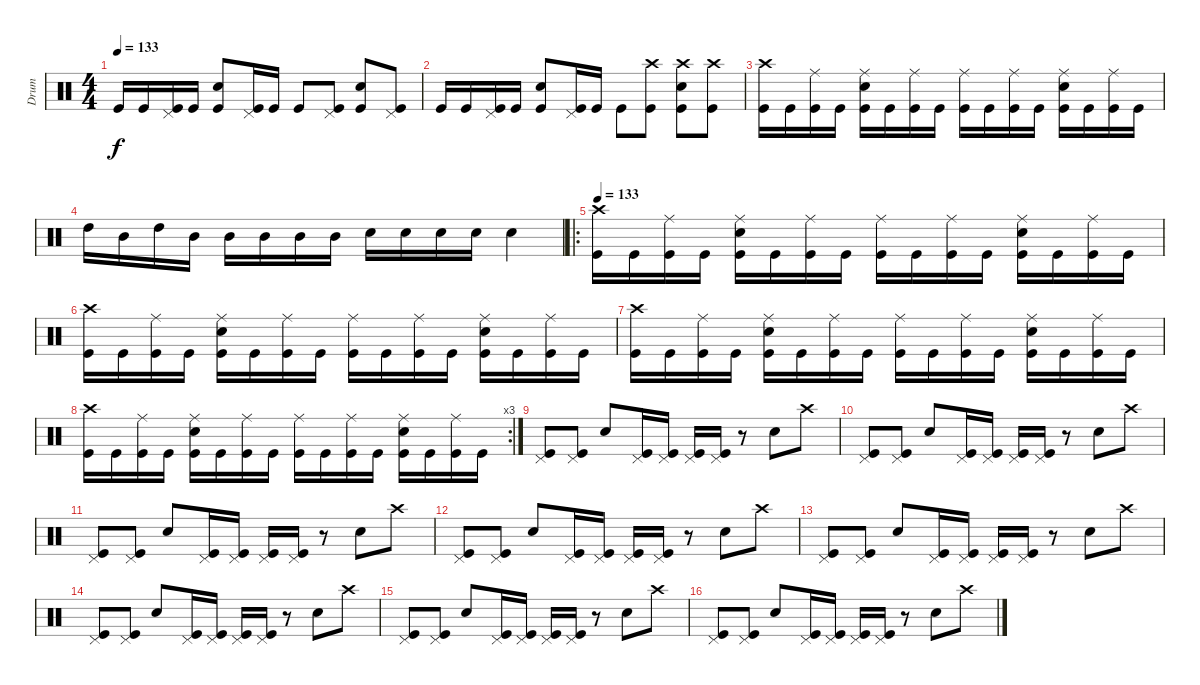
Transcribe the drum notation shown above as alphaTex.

\track ("Drum" "Drum") {instrument percussion}
\staff {score}
\articulation defaults
\ts (4 4)
\tempo 133
\clef neutral
\ks c "Kick (hit)".16{dy f} "Kick (hit)".16
("Kick (hit)" "Pedal Hi-Hat (hit)").16 "Kick (hit)".16 ("Kick (hit)" "Snare (hit) 2").8 ("Kick (hit)" "Pedal Hi-Hat (hit)").16 "Kick (hit)".16 "Kick (hit)".8 ("Kick (hit)" "Pedal Hi-Hat (hit)").8 ("Kick (hit)" "Snare (hit) 2").8 ("Kick (hit)" "Pedal Hi-Hat (hit)").8 |
"Kick (hit)".16 "Kick (hit)".16 ("Kick (hit)" "Pedal Hi-Hat (hit)").16 "Kick (hit)".16 ("Kick (hit)" "Snare (hit) 2").8 ("Kick (hit)" "Pedal Hi-Hat (hit)").16 "Kick (hit)".16 "Kick (hit)".8 ("Kick (hit)" "Crash high (hit)").8 ("Kick (hit)" "Snare (hit) 2" "Crash high (hit)").8 ("Kick (hit)" "Crash high (hit)").8 |
("Kick (hit)" "Crash high (hit)").16 "Kick (hit)".16 ("Kick (hit)" "Ride (middle)").16 "Kick (hit)".16 ("Kick (hit)" "Ride (middle)" "Snare (hit) 2").16 "Kick (hit)".16 ("Kick (hit)" "Ride (middle)").16 "Kick (hit)".16 ("Kick (hit)" "Ride (middle)").16 "Kick (hit)".16 ("Kick (hit)" "Ride (middle)").16 "Kick (hit)".16 ("Kick (hit)" "Ride (middle)" "Snare (hit) 2").16 "Kick (hit)".16 ("Kick (hit)" "Ride (middle)").16 "Kick (hit)".16 |
"High Tom (hit)".16 "Mid Tom (hit)".16 "High Tom (hit)".16 "Mid Tom (hit)".16 "Mid Tom (hit)".16 "Mid Tom (hit)".16 "Mid Tom (hit)".16 "Mid Tom (hit)".16 "Snare (hit) 2".16 "Snare (hit) 2".16 "Snare (hit) 2".16 "Snare (hit) 2".16 "Snare (hit) 2".4 |
\ro
\tempo 133
("Kick (hit)" "Crash high (hit)").16 "Kick (hit)".16 ("Kick (hit)" "Ride (middle)").16 "Kick (hit)".16 ("Kick (hit)" "Ride (middle)" "Snare (hit) 2").16 "Kick (hit)".16 ("Kick (hit)" "Ride (middle)").16 "Kick (hit)".16 ("Kick (hit)" "Ride (middle)").16 "Kick (hit)".16 ("Kick (hit)" "Ride (middle)").16 "Kick (hit)".16 ("Kick (hit)" "Ride (middle)" "Snare (hit) 2").16 "Kick (hit)".16 ("Kick (hit)" "Ride (middle)").16 "Kick (hit)".16 |
("Kick (hit)" "Crash high (hit)").16 "Kick (hit)".16 ("Kick (hit)" "Ride (middle)").16 "Kick (hit)".16 ("Kick (hit)" "Ride (middle)" "Snare (hit) 2").16 "Kick (hit)".16 ("Kick (hit)" "Ride (middle)").16 "Kick (hit)".16 ("Kick (hit)" "Ride (middle)").16 "Kick (hit)".16 ("Kick (hit)" "Ride (middle)").16 "Kick (hit)".16 ("Kick (hit)" "Ride (middle)" "Snare (hit) 2").16 "Kick (hit)".16 ("Kick (hit)" "Ride (middle)").16 "Kick (hit)".16 |
("Kick (hit)" "Crash high (hit)").16 "Kick (hit)".16 ("Kick (hit)" "Ride (middle)").16 "Kick (hit)".16 ("Kick (hit)" "Ride (middle)" "Snare (hit) 2").16 "Kick (hit)".16 ("Kick (hit)" "Ride (middle)").16 "Kick (hit)".16 ("Kick (hit)" "Ride (middle)").16 "Kick (hit)".16 ("Kick (hit)" "Ride (middle)").16 "Kick (hit)".16 ("Kick (hit)" "Ride (middle)" "Snare (hit) 2").16 "Kick (hit)".16 ("Kick (hit)" "Ride (middle)").16 "Kick (hit)".16 |
\rc 3
("Kick (hit)" "Crash high (hit)").16 "Kick (hit)".16 ("Kick (hit)" "Ride (middle)").16 "Kick (hit)".16 ("Kick (hit)" "Ride (middle)" "Snare (hit) 2").16 "Kick (hit)".16 ("Kick (hit)" "Ride (middle)").16 "Kick (hit)".16 ("Kick (hit)" "Ride (middle)").16 "Kick (hit)".16 ("Kick (hit)" "Ride (middle)").16 "Kick (hit)".16 ("Kick (hit)" "Ride (middle)" "Snare (hit) 2").16 "Kick (hit)".16 ("Kick (hit)" "Ride (middle)").16 "Kick (hit)".16 |
("Kick (hit)" "Pedal Hi-Hat (hit)").8 ("Kick (hit)" "Pedal Hi-Hat (hit)").8 "Snare (hit) 2".8 ("Pedal Hi-Hat (hit)" "Kick (hit)").16 ("Kick (hit)" "Pedal Hi-Hat (hit)").16 ("Kick (hit)" "Pedal Hi-Hat (hit)").16 ("Kick (hit)" "Pedal Hi-Hat (hit)").16 r.8 "Snare (hit) 2".8 "Crash high (hit)".8 |
("Kick (hit)" "Pedal Hi-Hat (hit)").8 ("Kick (hit)" "Pedal Hi-Hat (hit)").8 "Snare (hit) 2".8 ("Pedal Hi-Hat (hit)" "Kick (hit)").16 ("Kick (hit)" "Pedal Hi-Hat (hit)").16 ("Kick (hit)" "Pedal Hi-Hat (hit)").16 ("Kick (hit)" "Pedal Hi-Hat (hit)").16 r.8 "Snare (hit) 2".8 "Crash high (hit)".8 |
("Kick (hit)" "Pedal Hi-Hat (hit)").8 ("Kick (hit)" "Pedal Hi-Hat (hit)").8 "Snare (hit) 2".8 ("Pedal Hi-Hat (hit)" "Kick (hit)").16 ("Kick (hit)" "Pedal Hi-Hat (hit)").16 ("Kick (hit)" "Pedal Hi-Hat (hit)").16 ("Kick (hit)" "Pedal Hi-Hat (hit)").16 r.8 "Snare (hit) 2".8 "Crash high (hit)".8 |
("Kick (hit)" "Pedal Hi-Hat (hit)").8 ("Kick (hit)" "Pedal Hi-Hat (hit)").8 "Snare (hit) 2".8 ("Pedal Hi-Hat (hit)" "Kick (hit)").16 ("Kick (hit)" "Pedal Hi-Hat (hit)").16 ("Kick (hit)" "Pedal Hi-Hat (hit)").16 ("Kick (hit)" "Pedal Hi-Hat (hit)").16 r.8 "Snare (hit) 2".8 "Crash high (hit)".8 |
("Kick (hit)" "Pedal Hi-Hat (hit)").8 ("Kick (hit)" "Pedal Hi-Hat (hit)").8 "Snare (hit) 2".8 ("Pedal Hi-Hat (hit)" "Kick (hit)").16 ("Kick (hit)" "Pedal Hi-Hat (hit)").16 ("Kick (hit)" "Pedal Hi-Hat (hit)").16 ("Kick (hit)" "Pedal Hi-Hat (hit)").16 r.8 "Snare (hit) 2".8 "Crash high (hit)".8 |
("Kick (hit)" "Pedal Hi-Hat (hit)").8 ("Kick (hit)" "Pedal Hi-Hat (hit)").8 "Snare (hit) 2".8 ("Pedal Hi-Hat (hit)" "Kick (hit)").16 ("Kick (hit)" "Pedal Hi-Hat (hit)").16 ("Kick (hit)" "Pedal Hi-Hat (hit)").16 ("Kick (hit)" "Pedal Hi-Hat (hit)").16 r.8 "Snare (hit) 2".8 "Crash high (hit)".8 |
("Kick (hit)" "Pedal Hi-Hat (hit)").8 ("Kick (hit)" "Pedal Hi-Hat (hit)").8 "Snare (hit) 2".8 ("Pedal Hi-Hat (hit)" "Kick (hit)").16 ("Kick (hit)" "Pedal Hi-Hat (hit)").16 ("Kick (hit)" "Pedal Hi-Hat (hit)").16 ("Kick (hit)" "Pedal Hi-Hat (hit)").16 r.8 "Snare (hit) 2".8 "Crash high (hit)".8 |
("Kick (hit)" "Pedal Hi-Hat (hit)").8 ("Kick (hit)" "Pedal Hi-Hat (hit)").8 "Snare (hit) 2".8 ("Pedal Hi-Hat (hit)" "Kick (hit)").16 ("Kick (hit)" "Pedal Hi-Hat (hit)").16 ("Kick (hit)" "Pedal Hi-Hat (hit)").16 ("Kick (hit)" "Pedal Hi-Hat (hit)").16 r.8 "Snare (hit) 2".8 "Crash high (hit)".8
